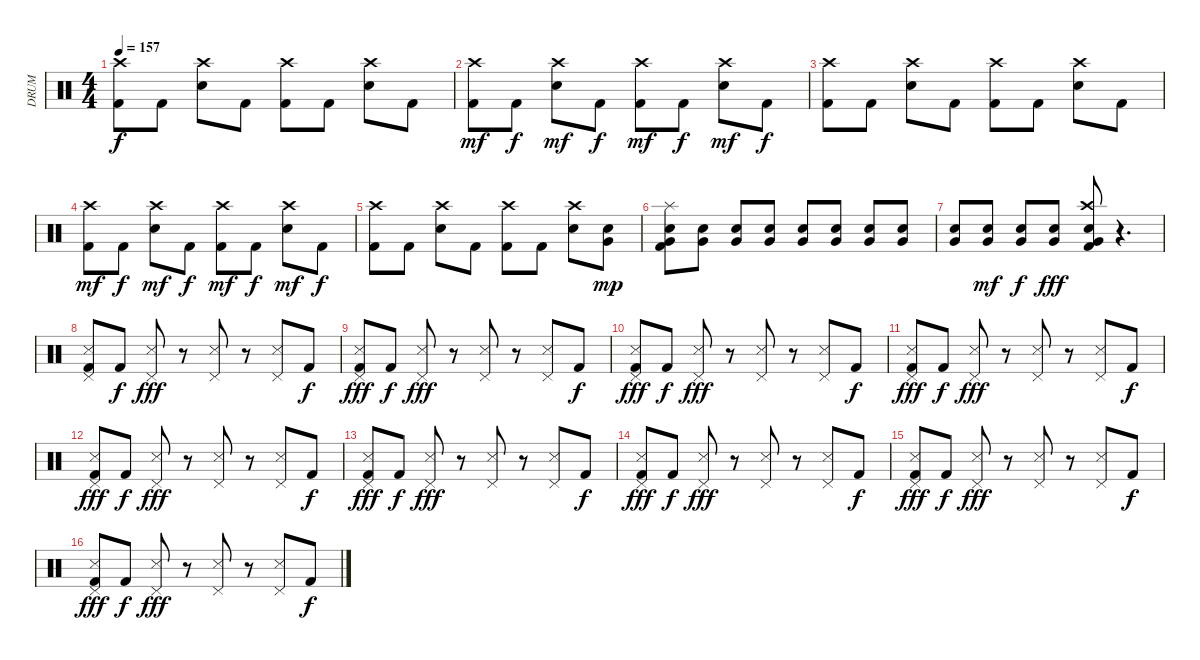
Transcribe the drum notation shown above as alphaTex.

\track ("DRUM" "DRUM") {instrument percussion}
\staff {score}
\articulation defaults
\ts (4 4)
\tempo 157
\clef neutral
\ks c
("Kick (hit) 2" "Crash high (hit)").8{dy f} "Kick (hit) 2".8 ("Crash high (hit)" "Electric Snare (hit)").8 "Kick (hit) 2".8 ("Kick (hit) 2" "Crash high (hit)").8 "Kick (hit) 2".8 ("Electric Snare (hit)" "Crash high (hit)").8 "Kick (hit) 2".8 |
("Kick (hit) 2" "Crash high (hit)").8{dy mf} "Kick (hit) 2".8{dy f} ("Crash high (hit)" "Electric Snare (hit)").8{dy mf} "Kick (hit) 2".8{dy f} ("Kick (hit) 2" "Crash high (hit)").8{dy mf} "Kick (hit) 2".8{dy f} ("Crash high (hit)" "Electric Snare (hit)").8{dy mf} "Kick (hit) 2".8{dy f} |
("Kick (hit) 2" "Crash high (hit)").8 "Kick (hit) 2".8 ("Crash high (hit)" "Electric Snare (hit)").8 "Kick (hit) 2".8 ("Kick (hit) 2" "Crash high (hit)").8 "Kick (hit) 2".8 ("Electric Snare (hit)" "Crash high (hit)").8 "Kick (hit) 2".8 |
("Kick (hit) 2" "Crash high (hit)").8{dy mf} "Kick (hit) 2".8{dy f} ("Crash high (hit)" "Electric Snare (hit)").8{dy mf} "Kick (hit) 2".8{dy f} ("Kick (hit) 2" "Crash high (hit)").8{dy mf} "Kick (hit) 2".8{dy f} ("Crash high (hit)" "Electric Snare (hit)").8{dy mf} "Kick (hit) 2".8{dy f} |
("Kick (hit) 2" "Crash high (hit)").8 "Kick (hit) 2".8 ("Crash high (hit)" "Electric Snare (hit)").8 "Kick (hit) 2".8 ("Kick (hit) 2" "Crash high (hit)").8 "Kick (hit) 2".8 ("Electric Snare (hit)" "Crash high (hit)").8 ("Very Low Tom (hit)" "Electric Snare (hit)").8{dy mp} |
("Splash (hit)" "Kick (hit) 2" "Very Low Tom (hit)" "Electric Snare (hit)").8 ("Very Low Tom (hit)" "Electric Snare (hit)").8 ("Very Low Tom (hit)" "Electric Snare (hit)").8 ("Very Low Tom (hit)" "Electric Snare (hit)").8 ("Very Low Tom (hit)" "Electric Snare (hit)").8 ("Very Low Tom (hit)" "Electric Snare (hit)").8 ("Very Low Tom (hit)" "Electric Snare (hit)").8 ("Very Low Tom (hit)" "Electric Snare (hit)").8 |
("Very Low Tom (hit)" "Electric Snare (hit)").8 ("Very Low Tom (hit)" "Electric Snare (hit)").8{dy mf} ("Very Low Tom (hit)" "Electric Snare (hit)").8{dy f} ("Very Low Tom (hit)" "Electric Snare (hit)").8{dy fff} ("Crash high (hit)" "Kick (hit) 2" "Very Low Tom (hit)" "Electric Snare (hit)").8 r.4{d} |
("Pedal Hi-Hat (hit)" "Snare (side stick) 3" "Kick (hit) 2").8 "Kick (hit) 2".8{dy f} ("Pedal Hi-Hat (hit)" "Snare (side stick) 3").8{dy fff} r.8 ("Pedal Hi-Hat (hit)" "Snare (side stick) 3").8 r.8 ("Pedal Hi-Hat (hit)" "Snare (side stick) 3").8 "Kick (hit) 2".8{dy f} |
("Pedal Hi-Hat (hit)" "Snare (side stick) 3" "Kick (hit) 2").8{dy fff} "Kick (hit) 2".8{dy f} ("Pedal Hi-Hat (hit)" "Snare (side stick) 3").8{dy fff} r.8 ("Pedal Hi-Hat (hit)" "Snare (side stick) 3").8 r.8 ("Pedal Hi-Hat (hit)" "Snare (side stick) 3").8 "Kick (hit) 2".8{dy f} |
("Pedal Hi-Hat (hit)" "Snare (side stick) 3" "Kick (hit) 2").8{dy fff} "Kick (hit) 2".8{dy f} ("Pedal Hi-Hat (hit)" "Snare (side stick) 3").8{dy fff} r.8 ("Pedal Hi-Hat (hit)" "Snare (side stick) 3").8 r.8 ("Pedal Hi-Hat (hit)" "Snare (side stick) 3").8 "Kick (hit) 2".8{dy f} |
("Pedal Hi-Hat (hit)" "Snare (side stick) 3" "Kick (hit) 2").8{dy fff} "Kick (hit) 2".8{dy f} ("Pedal Hi-Hat (hit)" "Snare (side stick) 3").8{dy fff} r.8 ("Pedal Hi-Hat (hit)" "Snare (side stick) 3").8 r.8 ("Pedal Hi-Hat (hit)" "Snare (side stick) 3").8 "Kick (hit) 2".8{dy f} |
("Pedal Hi-Hat (hit)" "Snare (side stick) 3" "Kick (hit) 2").8{dy fff} "Kick (hit) 2".8{dy f} ("Pedal Hi-Hat (hit)" "Snare (side stick) 3").8{dy fff} r.8 ("Pedal Hi-Hat (hit)" "Snare (side stick) 3").8 r.8 ("Pedal Hi-Hat (hit)" "Snare (side stick) 3").8 "Kick (hit) 2".8{dy f} |
("Pedal Hi-Hat (hit)" "Snare (side stick) 3" "Kick (hit) 2").8{dy fff} "Kick (hit) 2".8{dy f} ("Pedal Hi-Hat (hit)" "Snare (side stick) 3").8{dy fff} r.8 ("Pedal Hi-Hat (hit)" "Snare (side stick) 3").8 r.8 ("Pedal Hi-Hat (hit)" "Snare (side stick) 3").8 "Kick (hit) 2".8{dy f} |
("Pedal Hi-Hat (hit)" "Snare (side stick) 3" "Kick (hit) 2").8{dy fff} "Kick (hit) 2".8{dy f} ("Pedal Hi-Hat (hit)" "Snare (side stick) 3").8{dy fff} r.8 ("Pedal Hi-Hat (hit)" "Snare (side stick) 3").8 r.8 ("Pedal Hi-Hat (hit)" "Snare (side stick) 3").8 "Kick (hit) 2".8{dy f} |
("Pedal Hi-Hat (hit)" "Snare (side stick) 3" "Kick (hit) 2").8{dy fff} "Kick (hit) 2".8{dy f} ("Pedal Hi-Hat (hit)" "Snare (side stick) 3").8{dy fff} r.8 ("Pedal Hi-Hat (hit)" "Snare (side stick) 3").8 r.8 ("Pedal Hi-Hat (hit)" "Snare (side stick) 3").8 "Kick (hit) 2".8{dy f} |
("Pedal Hi-Hat (hit)" "Snare (side stick) 3" "Kick (hit) 2").8{dy fff} "Kick (hit) 2".8{dy f} ("Pedal Hi-Hat (hit)" "Snare (side stick) 3").8{dy fff} r.8 ("Pedal Hi-Hat (hit)" "Snare (side stick) 3").8 r.8 ("Pedal Hi-Hat (hit)" "Snare (side stick) 3").8 "Kick (hit) 2".8{dy f}
